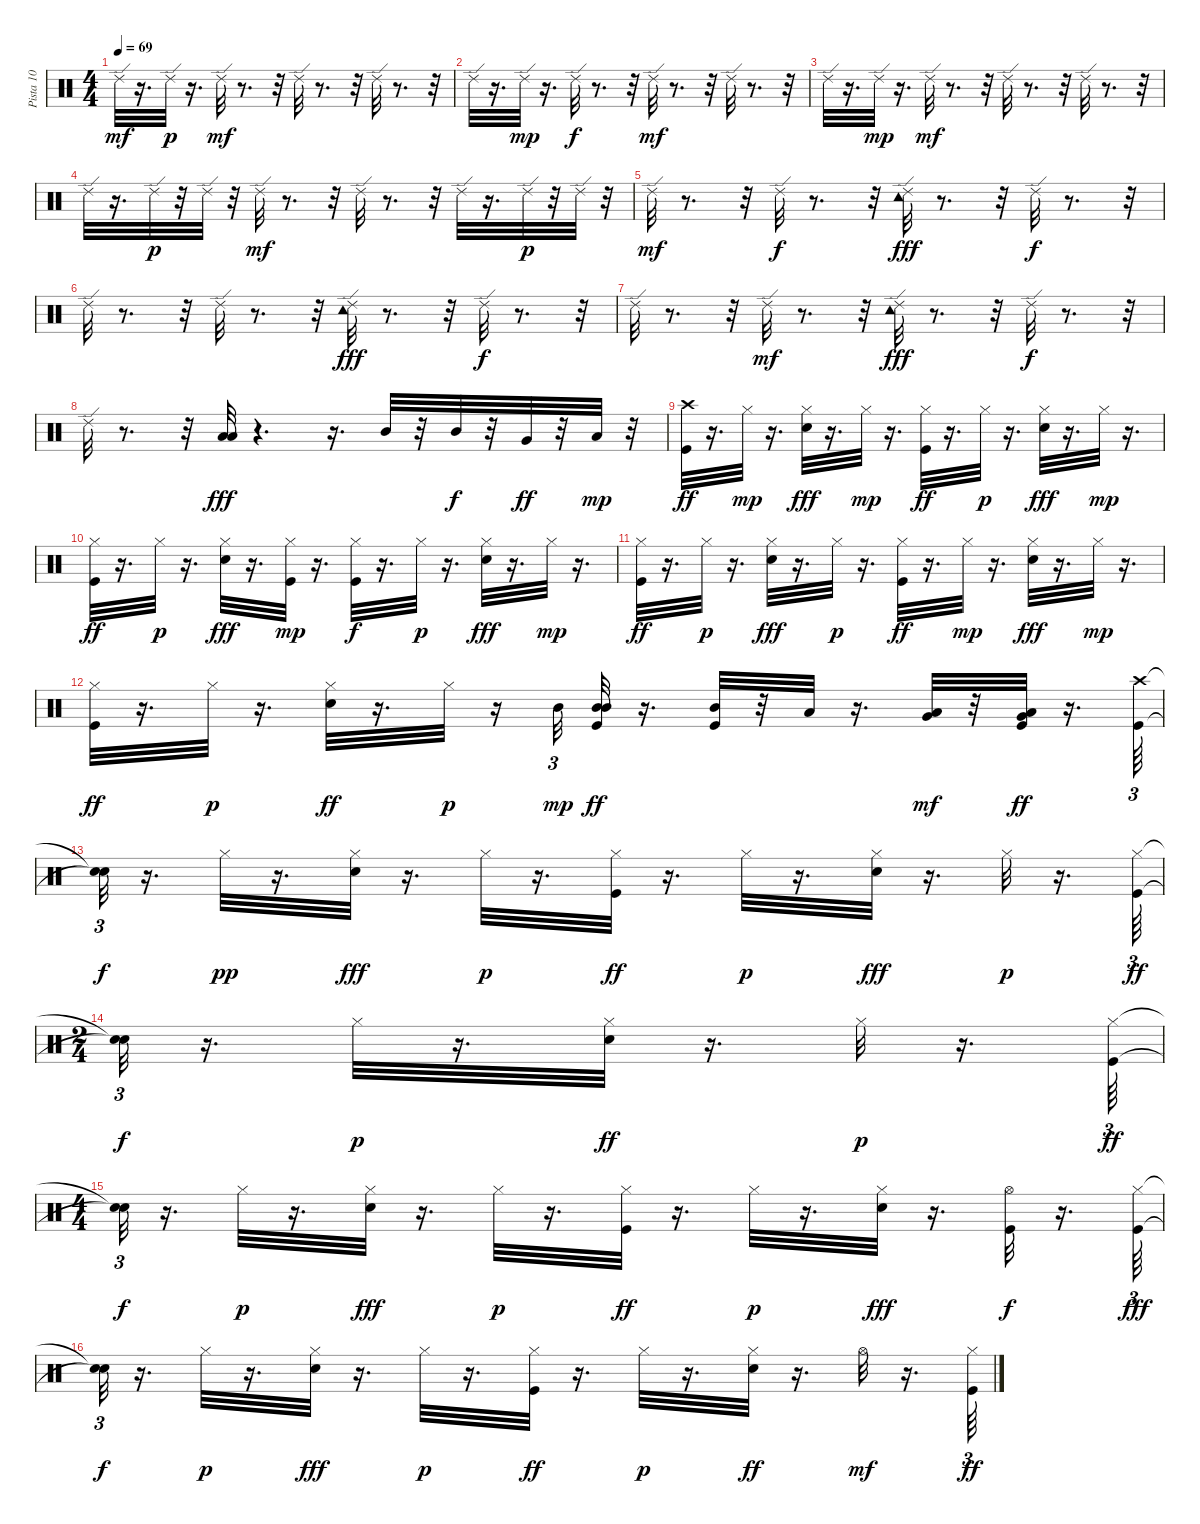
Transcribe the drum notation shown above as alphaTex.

\track ("Pista 10" "Pista 10") {instrument percussion}
\staff {score}
\articulation defaults
\ts (4 4)
\tempo 69
\clef neutral
\ks c "Ride (edge) 2".32{dy mf}
r.16{d} "Ride (edge) 2".32{dy p} r.16{d} "Ride (edge) 2".32{dy mf} r.8{d} r.32 "Ride (edge) 2".32 r.8{d} r.32 "Ride (edge) 2".32 r.8{d} r.32 |
"Ride (edge) 2".32 r.16{d} "Ride (edge) 2".32{dy mp} r.16{d} "Ride (edge) 2".32{dy f} r.8{d} r.32 "Ride (edge) 2".32{dy mf} r.8{d} r.32 "Ride (edge) 2".32 r.8{d} r.32 |
"Ride (edge) 2".32 r.16{d} "Ride (edge) 2".32{dy mp} r.16{d} "Ride (edge) 2".32{dy mf} r.8{d} r.32 "Ride (edge) 2".32 r.8{d} r.32 "Ride (edge) 2".32 r.8{d} r.32 |
"Ride (edge) 2".32 r.16{d} "Ride (edge) 2".32{dy p} r.32 "Ride (edge) 2".32 r.32 "Ride (edge) 2".32{dy mf} r.8{d} r.32 "Ride (edge) 2".32 r.8{d} r.32 "Ride (edge) 2".32 r.16{d} "Ride (edge) 2".32{dy p} r.32 "Ride (edge) 2".32 r.32 |
"Ride (edge) 2".32{dy mf} r.8{d} r.32 "Ride (edge) 2".32{dy f} r.8{d} r.32 ("Tambourine (hit)" "Ride (edge) 2").32{dy fff} r.8{d} r.32 "Ride (edge) 2".32{dy f} r.8{d} r.32 |
"Ride (edge) 2".32 r.8{d} r.32 "Ride (edge) 2".32 r.8{d} r.32 ("Tambourine (hit)" "Ride (edge) 2").32{dy fff} r.8{d} r.32 "Ride (edge) 2".32{dy f} r.8{d} r.32 |
"Ride (edge) 2".32 r.8{d} r.32 "Ride (edge) 2".32{dy mf} r.8{d} r.32 ("Tambourine (hit)" "Ride (edge) 2").32{dy fff} r.8{d} r.32 "Ride (edge) 2".32{dy f} r.8{d} r.32 |
"Ride (edge) 2".32 r.8{d} r.32 ("Low Floor Tom (hit)" "Low Tom (hit)").32{dy fff} r.4{d} r.16{d} "Mid Tom (hit)".32 r.32 "Mid Tom (hit)".32{dy f} r.32 "Very Low Tom (hit)".32{dy ff} r.32 "Low Floor Tom (hit)".32{dy mp} r.32 |
("Crash high (hit)" "Kick (hit)").32{dy ff} r.16{d} "Hi-Hat (closed)".32{dy mp} r.16{d} ("Hi-Hat (closed)" "Snare (hit) 2").32{dy fff} r.16{d} "Hi-Hat (closed)".32{dy mp} r.16{d} ("Kick (hit)" "Hi-Hat (closed)").32{dy ff} r.16{d} "Hi-Hat (closed)".32{dy p} r.16{d} ("Hi-Hat (closed)" "Snare (hit) 2").32{dy fff} r.16{d} "Hi-Hat (closed)".32{dy mp} r.16{d} |
("Hi-Hat (closed)" "Kick (hit)").32{dy ff} r.16{d} "Hi-Hat (closed)".32{dy p} r.16{d} ("Hi-Hat (closed)" "Snare (hit) 2").32{dy fff} r.16{d} ("Hi-Hat (closed)" "Kick (hit)").32{dy mp} r.16{d} ("Hi-Hat (closed)" "Kick (hit)").32{dy f} r.16{d} "Hi-Hat (closed)".32{dy p} r.16{d} ("Hi-Hat (closed)" "Snare (hit) 2").32{dy fff} r.16{d} "Hi-Hat (closed)".32{dy mp} r.16{d} |
("Kick (hit)" "Hi-Hat (closed)").32{dy ff} r.16{d} "Hi-Hat (closed)".32{dy p} r.16{d} ("Hi-Hat (closed)" "Snare (hit) 2").32{dy fff} r.16{d} "Hi-Hat (closed)".32{dy p} r.16{d} ("Hi-Hat (closed)" "Kick (hit)").32{dy ff} r.16{d} "Hi-Hat (closed)".32{dy mp} r.16{d} ("Hi-Hat (closed)" "Snare (hit) 2").32{dy fff} r.16{d} "Hi-Hat (closed)".32{dy mp} r.16{d} |
("Hi-Hat (closed)" "Kick (hit)").32{dy ff} r.16{d} "Hi-Hat (closed)".32{dy p} r.16{d} ("Hi-Hat (closed)" "Snare (hit) 2").32{dy ff} r.16{d} "Hi-Hat (closed)".32{dy p} r.16 "Mid Tom (hit)".32{tu (3 2) dy mp} ("Mid Tom (hit)" "Kick (hit)" "Mid Tom (hit)").32{dy ff} r.16{d} ("Mid Tom (hit)" "Kick (hit)").32 r.32 "Low Tom (hit)".32 r.16{d} ("Very Low Tom (hit)" "Low Floor Tom (hit)").32{dy mf} r.32 ("Very Low Tom (hit)" "Low Floor Tom (hit)" "Kick (hit)").32{dy ff} r.16{d} ("Crash high (hit)" "Kick (hit)").64{tu (3 2)} |
("Snare (hit)"{t} "Snare (hit)"{t}).32{tu (3 2) dy f} r.16{d} "Hi-Hat (closed)".32{dy pp} r.16{d} ("Hi-Hat (closed)" "Snare (hit) 2").32{dy fff} r.16{d} "Hi-Hat (closed)".32{dy p} r.16{d} ("Hi-Hat (closed)" "Kick (hit)").32{dy ff} r.16{d} "Hi-Hat (closed)".32{dy p} r.16{d} ("Hi-Hat (closed)" "Snare (hit) 2").32{dy fff} r.16{d} "Hi-Hat (closed)".32{dy p} r.16{d} ("Hi-Hat (closed)" "Kick (hit)").64{tu (3 2) dy ff} |
\ts (2 4)
("Snare (hit)"{t} "Snare (hit)"{t}).32{tu (3 2) dy f} r.16{d} "Hi-Hat (closed)".32{dy p} r.16{d} ("Snare (hit) 2" "Hi-Hat (closed)").32{dy ff} r.16{d} "Hi-Hat (closed)".32{dy p} r.16{d} ("Kick (hit)" "Hi-Hat (closed)").64{tu (3 2) dy ff} |
\ts (4 4)
("Snare (hit)"{t} "Snare (hit)"{t}).32{tu (3 2) dy f} r.16{d} "Hi-Hat (closed)".32{dy p} r.16{d} ("Snare (hit) 2" "Hi-Hat (closed)").32{dy fff} r.16{d} "Hi-Hat (closed)".32{dy p} r.16{d} ("Hi-Hat (closed)" "Kick (hit)").32{dy ff} r.16{d} "Hi-Hat (closed)".32{dy p} r.16{d} ("Hi-Hat (closed)" "Snare (hit) 2").32{dy fff} r.16{d} ("Hi-Hat (open)" "Kick (hit)").32{dy f} r.16{d} ("Hi-Hat (closed)" "Kick (hit)").64{tu (3 2) dy fff} |
("Snare (hit)"{t} "Snare (hit)"{t}).32{tu (3 2) dy f} r.16{d} "Hi-Hat (closed)".32{dy p} r.16{d} ("Hi-Hat (closed)" "Snare (hit) 2").32{dy fff} r.16{d} "Hi-Hat (closed)".32{dy p} r.16{d} ("Kick (hit)" "Hi-Hat (closed)").32{dy ff} r.16{d} "Hi-Hat (closed)".32{dy p} r.16{d} ("Hi-Hat (closed)" "Snare (hit) 2").32{dy ff} r.16{d} "Hi-Hat (open)".32{dy mf} r.16{d} ("Hi-Hat (closed)" "Kick (hit)").64{tu (3 2) dy ff}
